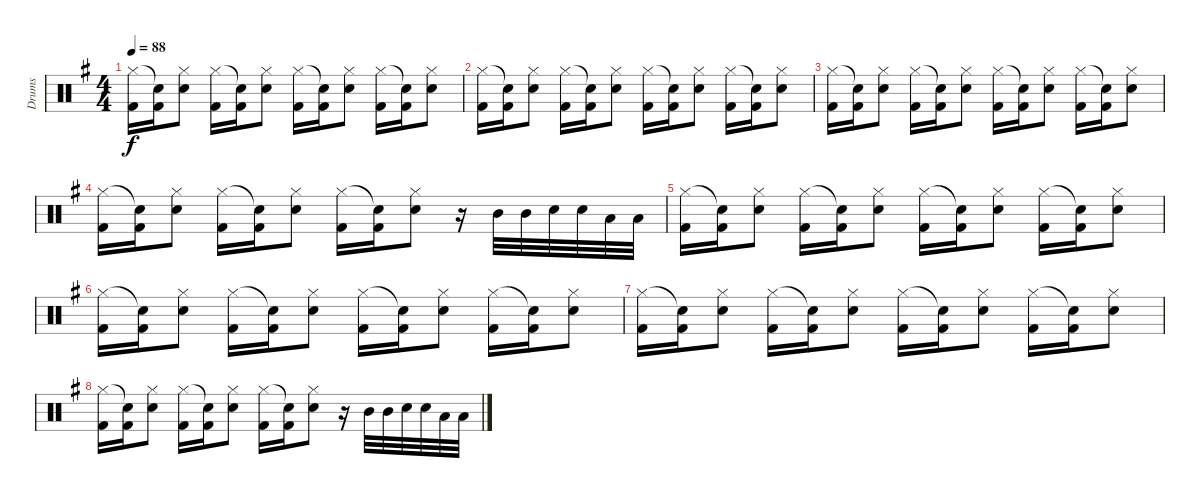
\track ("Drums" "Drums") {instrument percussion}
\staff {score}
\articulation defaults
\ts (4 4)
\tempo 88
\clef neutral
\ks eminor
("Hi-Hat (closed)" "Kick (hit) 2").16{dy f} ("Snare (hit)"{t} "Kick (hit) 2").16 ("Hi-Hat (closed)" "Snare (hit) 2").8 ("Hi-Hat (closed)" "Kick (hit) 2").16 ("Snare (hit)"{t} "Kick (hit) 2").16 ("Hi-Hat (closed)" "Snare (hit) 2").8 ("Hi-Hat (closed)" "Kick (hit) 2").16 ("Snare (hit)"{t} "Kick (hit) 2").16 ("Hi-Hat (closed)" "Snare (hit) 2").8 ("Hi-Hat (closed)" "Kick (hit) 2").16 ("Snare (hit)"{t} "Kick (hit) 2").16 ("Hi-Hat (closed)" "Snare (hit) 2").8 |
("Hi-Hat (closed)" "Kick (hit) 2").16 ("Snare (hit)"{t} "Kick (hit) 2").16 ("Hi-Hat (closed)" "Snare (hit) 2").8 ("Hi-Hat (closed)" "Kick (hit) 2").16 ("Snare (hit)"{t} "Kick (hit) 2").16 ("Hi-Hat (closed)" "Snare (hit) 2").8 ("Hi-Hat (closed)" "Kick (hit) 2").16 ("Snare (hit)"{t} "Kick (hit) 2").16 ("Hi-Hat (closed)" "Snare (hit) 2").8 ("Hi-Hat (closed)" "Kick (hit) 2").16 ("Snare (hit)"{t} "Kick (hit) 2").16 ("Hi-Hat (closed)" "Snare (hit) 2").8 |
("Hi-Hat (closed)" "Kick (hit) 2").16 ("Snare (hit)"{t} "Kick (hit) 2").16 ("Hi-Hat (closed)" "Snare (hit) 2").8 ("Hi-Hat (closed)" "Kick (hit) 2").16 ("Snare (hit)"{t} "Kick (hit) 2").16 ("Hi-Hat (closed)" "Snare (hit) 2").8 ("Hi-Hat (closed)" "Kick (hit) 2").16 ("Snare (hit)"{t} "Kick (hit) 2").16 ("Hi-Hat (closed)" "Snare (hit) 2").8 ("Hi-Hat (closed)" "Kick (hit) 2").16 ("Snare (hit)"{t} "Kick (hit) 2").16 ("Hi-Hat (closed)" "Snare (hit) 2").8 |
("Hi-Hat (closed)" "Kick (hit) 2").16 ("Snare (hit)"{t} "Kick (hit) 2").16 ("Hi-Hat (closed)" "Snare (hit) 2").8 ("Hi-Hat (closed)" "Kick (hit) 2").16 ("Snare (hit)"{t} "Kick (hit) 2").16 ("Hi-Hat (closed)" "Snare (hit) 2").8 ("Hi-Hat (closed)" "Kick (hit) 2").16 ("Snare (hit)"{t} "Kick (hit) 2").16 ("Hi-Hat (closed)" "Snare (hit) 2").8 r.16 "Mid Tom (hit)".32 "Mid Tom (hit)".32 "Snare (hit) 2".32 "Snare (hit) 2".32 "Low Tom (hit)".32 "Low Tom (hit)".32 |
("Hi-Hat (closed)" "Kick (hit) 2").16{volume 0} ("Snare (hit)"{t} "Kick (hit) 2").16 ("Hi-Hat (closed)" "Snare (hit) 2").8 ("Hi-Hat (closed)" "Kick (hit) 2").16 ("Snare (hit)"{t} "Kick (hit) 2").16 ("Hi-Hat (closed)" "Snare (hit) 2").8 ("Hi-Hat (closed)" "Kick (hit) 2").16 ("Snare (hit)"{t} "Kick (hit) 2").16 ("Hi-Hat (closed)" "Snare (hit) 2").8 ("Hi-Hat (closed)" "Kick (hit) 2").16 ("Snare (hit)"{t} "Kick (hit) 2").16 ("Hi-Hat (closed)" "Snare (hit) 2").8 |
("Hi-Hat (closed)" "Kick (hit) 2").16 ("Snare (hit)"{t} "Kick (hit) 2").16 ("Hi-Hat (closed)" "Snare (hit) 2").8 ("Hi-Hat (closed)" "Kick (hit) 2").16 ("Snare (hit)"{t} "Kick (hit) 2").16 ("Hi-Hat (closed)" "Snare (hit) 2").8 ("Hi-Hat (closed)" "Kick (hit) 2").16 ("Snare (hit)"{t} "Kick (hit) 2").16 ("Hi-Hat (closed)" "Snare (hit) 2").8 ("Hi-Hat (closed)" "Kick (hit) 2").16 ("Snare (hit)"{t} "Kick (hit) 2").16 ("Hi-Hat (closed)" "Snare (hit) 2").8 |
("Hi-Hat (closed)" "Kick (hit) 2").16 ("Snare (hit)"{t} "Kick (hit) 2").16 ("Hi-Hat (closed)" "Snare (hit) 2").8 ("Hi-Hat (closed)" "Kick (hit) 2").16 ("Snare (hit)"{t} "Kick (hit) 2").16 ("Hi-Hat (closed)" "Snare (hit) 2").8 ("Hi-Hat (closed)" "Kick (hit) 2").16 ("Snare (hit)"{t} "Kick (hit) 2").16 ("Hi-Hat (closed)" "Snare (hit) 2").8 ("Hi-Hat (closed)" "Kick (hit) 2").16 ("Snare (hit)"{t} "Kick (hit) 2").16 ("Hi-Hat (closed)" "Snare (hit) 2").8 |
("Hi-Hat (closed)" "Kick (hit) 2").16 ("Snare (hit)"{t} "Kick (hit) 2").16 ("Hi-Hat (closed)" "Snare (hit) 2").8 ("Hi-Hat (closed)" "Kick (hit) 2").16 ("Snare (hit)"{t} "Kick (hit) 2").16 ("Hi-Hat (closed)" "Snare (hit) 2").8 ("Hi-Hat (closed)" "Kick (hit) 2").16 ("Snare (hit)"{t} "Kick (hit) 2").16 ("Hi-Hat (closed)" "Snare (hit) 2").8 r.16 "Mid Tom (hit)".32 "Mid Tom (hit)".32 "Snare (hit) 2".32 "Snare (hit) 2".32 "Low Tom (hit)".32 "Low Tom (hit)".32
